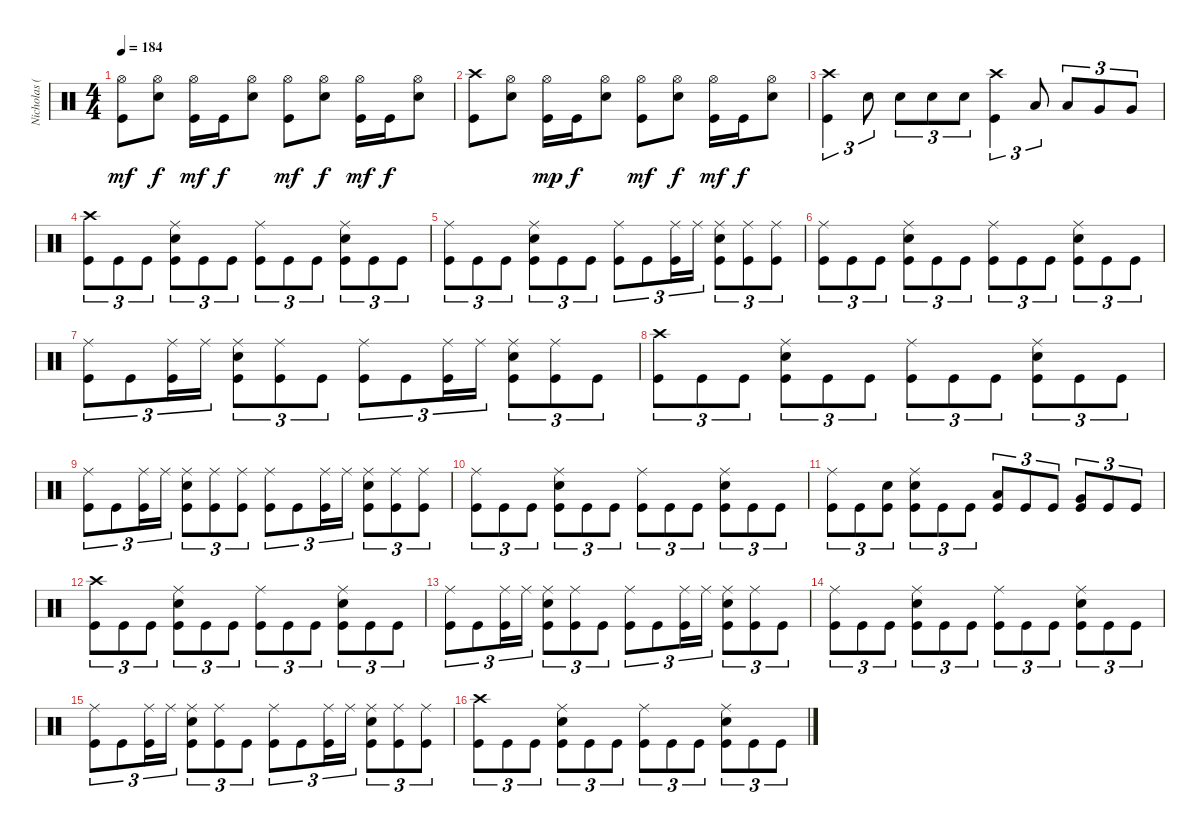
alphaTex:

\track ("Nicholas (Drums)" "Nicholas (") {instrument percussion}
\staff {score}
\articulation defaults
\ts (4 4)
\tempo 184
\clef neutral
\ks c
("Hi-Hat (open)" "Kick (hit)").8{dy mf} ("Hi-Hat (open)" "Electric Snare (hit)").8{dy f} ("Hi-Hat (open)" "Kick (hit)").16{dy mf} "Kick (hit)".16{dy f} ("Hi-Hat (open)" "Electric Snare (hit)").8 ("Hi-Hat (open)" "Kick (hit)").8{dy mf} ("Hi-Hat (open)" "Electric Snare (hit)").8{dy f} ("Hi-Hat (open)" "Kick (hit)").16{dy mf} "Kick (hit)".16{dy f} ("Hi-Hat (open)" "Electric Snare (hit)").8 |
("Crash high (hit)" "Kick (hit)").8 ("Hi-Hat (open)" "Electric Snare (hit)").8 ("Hi-Hat (open)" "Kick (hit)").16{dy mp} "Kick (hit)".16{dy f} ("Hi-Hat (open)" "Electric Snare (hit)").8 ("Hi-Hat (open)" "Kick (hit)").8{dy mf} ("Hi-Hat (open)" "Electric Snare (hit)").8{dy f} ("Hi-Hat (open)" "Kick (hit)").16{dy mf} "Kick (hit)".16{dy f} ("Hi-Hat (open)" "Electric Snare (hit)").8 |
("Crash high (hit)" "Kick (hit)").4{tu (3 2)} "Electric Snare (hit)".8{tu (3 2)} "Electric Snare (hit)".8{tu (3 2)} "Electric Snare (hit)".8{tu (3 2)} "Electric Snare (hit)".8{tu (3 2)} ("Crash high (hit)" "Kick (hit)").4{tu (3 2)} "Low Tom (hit)".8{tu (3 2)} "Low Tom (hit)".8{tu (3 2)} "Very Low Tom (hit)".8{tu (3 2)} "Very Low Tom (hit)".8{tu (3 2)} |
("Crash high (hit)" "Kick (hit)").8{tu (3 2)} "Kick (hit)".8{tu (3 2)} "Kick (hit)".8{tu (3 2)} ("Ride (middle)" "Electric Snare (hit)" "Kick (hit)").8{tu (3 2)} "Kick (hit)".8{tu (3 2)} "Kick (hit)".8{tu (3 2)} ("Ride (middle)" "Kick (hit)").8{tu (3 2)} "Kick (hit)".8{tu (3 2)} "Kick (hit)".8{tu (3 2)} ("Ride (middle)" "Electric Snare (hit)" "Kick (hit)").8{tu (3 2)} "Kick (hit)".8{tu (3 2)} "Kick (hit)".8{tu (3 2)} |
("Ride (middle)" "Kick (hit)").8{tu (3 2)} "Kick (hit)".8{tu (3 2)} "Kick (hit)".8{tu (3 2)} ("Ride (middle)" "Electric Snare (hit)" "Kick (hit)").8{tu (3 2)} "Kick (hit)".8{tu (3 2)} "Kick (hit)".8{tu (3 2)} ("Ride (middle)" "Kick (hit)").8{tu (3 2)} "Kick (hit)".8{tu (3 2)} ("Ride (middle)" "Kick (hit)").16{tu (3 2)} "Ride (middle)".16{tu (3 2)} ("Ride (middle)" "Electric Snare (hit)" "Kick (hit)").8{tu (3 2)} ("Ride (middle)" "Kick (hit)").8{tu (3 2)} ("Ride (middle)" "Kick (hit)").8{tu (3 2)} |
("Ride (middle)" "Kick (hit)").8{tu (3 2)} "Kick (hit)".8{tu (3 2)} "Kick (hit)".8{tu (3 2)} ("Ride (middle)" "Electric Snare (hit)" "Kick (hit)").8{tu (3 2)} "Kick (hit)".8{tu (3 2)} "Kick (hit)".8{tu (3 2)} ("Ride (middle)" "Kick (hit)").8{tu (3 2)} "Kick (hit)".8{tu (3 2)} "Kick (hit)".8{tu (3 2)} ("Ride (middle)" "Electric Snare (hit)" "Kick (hit)").8{tu (3 2)} "Kick (hit)".8{tu (3 2)} "Kick (hit)".8{tu (3 2)} |
("Ride (middle)" "Kick (hit)").8{tu (3 2)} "Kick (hit)".8{tu (3 2)} ("Ride (middle)" "Kick (hit)").16{tu (3 2)} "Ride (middle)".16{tu (3 2)} ("Ride (middle)" "Electric Snare (hit)" "Kick (hit)").8{tu (3 2)} ("Ride (middle)" "Kick (hit)").8{tu (3 2)} "Kick (hit)".8{tu (3 2)} ("Ride (middle)" "Kick (hit)").8{tu (3 2)} "Kick (hit)".8{tu (3 2)} ("Ride (middle)" "Kick (hit)").16{tu (3 2)} "Ride (middle)".16{tu (3 2)} ("Ride (middle)" "Electric Snare (hit)" "Kick (hit)").8{tu (3 2)} ("Ride (middle)" "Kick (hit)").8{tu (3 2)} "Kick (hit)".8{tu (3 2)} |
("Crash high (hit)" "Kick (hit)").8{tu (3 2)} "Kick (hit)".8{tu (3 2)} "Kick (hit)".8{tu (3 2)} ("Ride (middle)" "Electric Snare (hit)" "Kick (hit)").8{tu (3 2)} "Kick (hit)".8{tu (3 2)} "Kick (hit)".8{tu (3 2)} ("Ride (middle)" "Kick (hit)").8{tu (3 2)} "Kick (hit)".8{tu (3 2)} "Kick (hit)".8{tu (3 2)} ("Ride (middle)" "Electric Snare (hit)" "Kick (hit)").8{tu (3 2)} "Kick (hit)".8{tu (3 2)} "Kick (hit)".8{tu (3 2)} |
("Ride (middle)" "Kick (hit)").8{tu (3 2)} "Kick (hit)".8{tu (3 2)} ("Ride (middle)" "Kick (hit)").16{tu (3 2)} "Ride (middle)".16{tu (3 2)} ("Ride (middle)" "Electric Snare (hit)" "Kick (hit)").8{tu (3 2)} ("Ride (middle)" "Kick (hit)").8{tu (3 2)} ("Ride (middle)" "Kick (hit)").8{tu (3 2)} ("Ride (middle)" "Kick (hit)").8{tu (3 2)} "Kick (hit)".8{tu (3 2)} ("Ride (middle)" "Kick (hit)").16{tu (3 2)} "Ride (middle)".16{tu (3 2)} ("Ride (middle)" "Electric Snare (hit)" "Kick (hit)").8{tu (3 2)} ("Ride (middle)" "Kick (hit)").8{tu (3 2)} ("Ride (middle)" "Kick (hit)").8{tu (3 2)} |
("Ride (middle)" "Kick (hit)").8{tu (3 2)} "Kick (hit)".8{tu (3 2)} "Kick (hit)".8{tu (3 2)} ("Ride (middle)" "Electric Snare (hit)" "Kick (hit)").8{tu (3 2)} "Kick (hit)".8{tu (3 2)} "Kick (hit)".8{tu (3 2)} ("Ride (middle)" "Kick (hit)").8{tu (3 2)} "Kick (hit)".8{tu (3 2)} "Kick (hit)".8{tu (3 2)} ("Ride (middle)" "Electric Snare (hit)" "Kick (hit)").8{tu (3 2)} "Kick (hit)".8{tu (3 2)} "Kick (hit)".8{tu (3 2)} |
("Ride (middle)" "Kick (hit)").8{tu (3 2)} "Kick (hit)".8{tu (3 2)} ("Electric Snare (hit)" "Kick (hit)").8{tu (3 2)} ("Ride (middle)" "Electric Snare (hit)" "Kick (hit)").8{tu (3 2)} "Kick (hit)".8{tu (3 2)} "Kick (hit)".8{tu (3 2)} ("Low Tom (hit)" "Kick (hit)").8{tu (3 2)} "Kick (hit)".8{tu (3 2)} "Kick (hit)".8{tu (3 2)} ("Very Low Tom (hit)" "Kick (hit)").8{tu (3 2)} "Kick (hit)".8{tu (3 2)} "Kick (hit)".8{tu (3 2)} |
("Crash high (hit)" "Kick (hit)").8{tu (3 2)} "Kick (hit)".8{tu (3 2)} "Kick (hit)".8{tu (3 2)} ("Ride (middle)" "Electric Snare (hit)" "Kick (hit)").8{tu (3 2)} "Kick (hit)".8{tu (3 2)} "Kick (hit)".8{tu (3 2)} ("Ride (middle)" "Kick (hit)").8{tu (3 2)} "Kick (hit)".8{tu (3 2)} "Kick (hit)".8{tu (3 2)} ("Ride (middle)" "Electric Snare (hit)" "Kick (hit)").8{tu (3 2)} "Kick (hit)".8{tu (3 2)} "Kick (hit)".8{tu (3 2)} |
("Ride (middle)" "Kick (hit)").8{tu (3 2)} "Kick (hit)".8{tu (3 2)} ("Ride (middle)" "Kick (hit)").16{tu (3 2)} "Ride (middle)".16{tu (3 2)} ("Ride (middle)" "Electric Snare (hit)" "Kick (hit)").8{tu (3 2)} ("Ride (middle)" "Kick (hit)").8{tu (3 2)} "Kick (hit)".8{tu (3 2)} ("Ride (middle)" "Kick (hit)").8{tu (3 2)} "Kick (hit)".8{tu (3 2)} ("Ride (middle)" "Kick (hit)").16{tu (3 2)} "Ride (middle)".16{tu (3 2)} ("Ride (middle)" "Electric Snare (hit)" "Kick (hit)").8{tu (3 2)} ("Ride (middle)" "Kick (hit)").8{tu (3 2)} "Kick (hit)".8{tu (3 2)} |
("Ride (middle)" "Kick (hit)").8{tu (3 2)} "Kick (hit)".8{tu (3 2)} "Kick (hit)".8{tu (3 2)} ("Ride (middle)" "Electric Snare (hit)" "Kick (hit)").8{tu (3 2)} "Kick (hit)".8{tu (3 2)} "Kick (hit)".8{tu (3 2)} ("Ride (middle)" "Kick (hit)").8{tu (3 2)} "Kick (hit)".8{tu (3 2)} "Kick (hit)".8{tu (3 2)} ("Ride (middle)" "Electric Snare (hit)" "Kick (hit)").8{tu (3 2)} "Kick (hit)".8{tu (3 2)} "Kick (hit)".8{tu (3 2)} |
("Ride (middle)" "Kick (hit)").8{tu (3 2)} "Kick (hit)".8{tu (3 2)} ("Ride (middle)" "Kick (hit)").16{tu (3 2)} "Ride (middle)".16{tu (3 2)} ("Ride (middle)" "Electric Snare (hit)" "Kick (hit)").8{tu (3 2)} ("Ride (middle)" "Kick (hit)").8{tu (3 2)} "Kick (hit)".8{tu (3 2)} ("Ride (middle)" "Kick (hit)").8{tu (3 2)} "Kick (hit)".8{tu (3 2)} ("Ride (middle)" "Kick (hit)").16{tu (3 2)} "Ride (middle)".16{tu (3 2)} ("Ride (middle)" "Electric Snare (hit)" "Kick (hit)").8{tu (3 2)} ("Ride (middle)" "Kick (hit)").8{tu (3 2)} ("Ride (middle)" "Kick (hit)").8{tu (3 2)} |
("Crash high (hit)" "Kick (hit)").8{tu (3 2)} "Kick (hit)".8{tu (3 2)} "Kick (hit)".8{tu (3 2)} ("Ride (middle)" "Electric Snare (hit)" "Kick (hit)").8{tu (3 2)} "Kick (hit)".8{tu (3 2)} "Kick (hit)".8{tu (3 2)} ("Ride (middle)" "Kick (hit)").8{tu (3 2)} "Kick (hit)".8{tu (3 2)} "Kick (hit)".8{tu (3 2)} ("Ride (middle)" "Electric Snare (hit)" "Kick (hit)").8{tu (3 2)} "Kick (hit)".8{tu (3 2)} "Kick (hit)".8{tu (3 2)}
